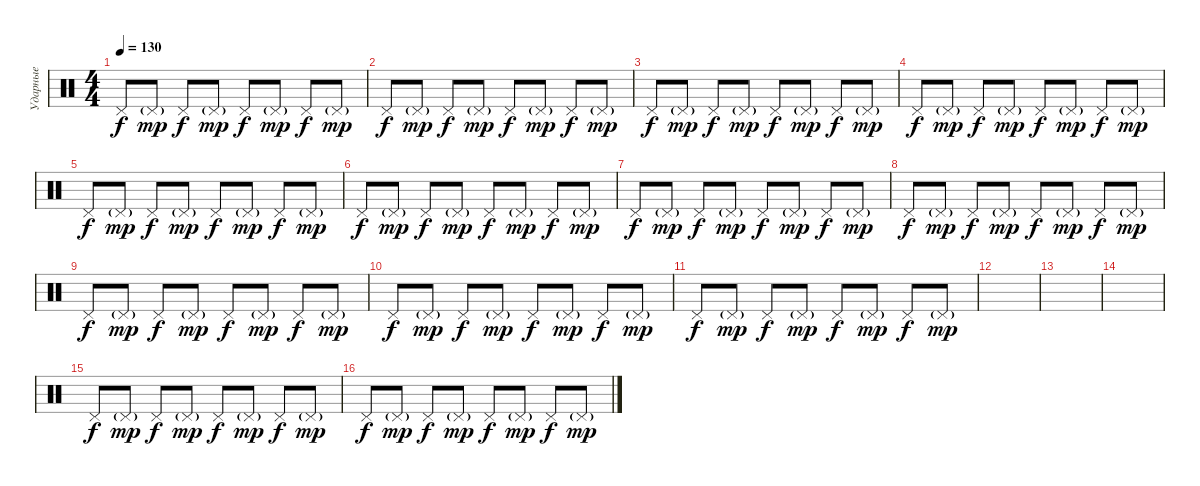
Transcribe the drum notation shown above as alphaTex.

\track ("Ударные" "Ударные") {instrument percussion}
\staff {score}
\articulation defaults
\ts (4 4)
\tempo 130
\clef neutral
\ks c "Pedal Hi-Hat (hit)".8{dy f} "Pedal Hi-Hat (hit)"{g}.8{dy mp} "Pedal Hi-Hat (hit)".8{dy f} "Pedal Hi-Hat (hit)"{g}.8{dy mp} "Pedal Hi-Hat (hit)".8{dy f} "Pedal Hi-Hat (hit)"{g}.8{dy mp} "Pedal Hi-Hat (hit)".8{dy f} "Pedal Hi-Hat (hit)"{g}.8{dy mp}
|
"Pedal Hi-Hat (hit)".8{dy f} "Pedal Hi-Hat (hit)"{g}.8{dy mp} "Pedal Hi-Hat (hit)".8{dy f} "Pedal Hi-Hat (hit)"{g}.8{dy mp} "Pedal Hi-Hat (hit)".8{dy f} "Pedal Hi-Hat (hit)"{g}.8{dy mp} "Pedal Hi-Hat (hit)".8{dy f} "Pedal Hi-Hat (hit)"{g}.8{dy mp} |
"Pedal Hi-Hat (hit)".8{dy f} "Pedal Hi-Hat (hit)"{g}.8{dy mp} "Pedal Hi-Hat (hit)".8{dy f} "Pedal Hi-Hat (hit)"{g}.8{dy mp} "Pedal Hi-Hat (hit)".8{dy f} "Pedal Hi-Hat (hit)"{g}.8{dy mp} "Pedal Hi-Hat (hit)".8{dy f} "Pedal Hi-Hat (hit)"{g}.8{dy mp} |
"Pedal Hi-Hat (hit)".8{dy f} "Pedal Hi-Hat (hit)"{g}.8{dy mp} "Pedal Hi-Hat (hit)".8{dy f} "Pedal Hi-Hat (hit)"{g}.8{dy mp} "Pedal Hi-Hat (hit)".8{dy f} "Pedal Hi-Hat (hit)"{g}.8{dy mp} "Pedal Hi-Hat (hit)".8{dy f} "Pedal Hi-Hat (hit)"{g}.8{dy mp} |
"Pedal Hi-Hat (hit)".8{dy f} "Pedal Hi-Hat (hit)"{g}.8{dy mp} "Pedal Hi-Hat (hit)".8{dy f} "Pedal Hi-Hat (hit)"{g}.8{dy mp} "Pedal Hi-Hat (hit)".8{dy f} "Pedal Hi-Hat (hit)"{g}.8{dy mp} "Pedal Hi-Hat (hit)".8{dy f} "Pedal Hi-Hat (hit)"{g}.8{dy mp} |
"Pedal Hi-Hat (hit)".8{dy f} "Pedal Hi-Hat (hit)"{g}.8{dy mp} "Pedal Hi-Hat (hit)".8{dy f} "Pedal Hi-Hat (hit)"{g}.8{dy mp} "Pedal Hi-Hat (hit)".8{dy f} "Pedal Hi-Hat (hit)"{g}.8{dy mp} "Pedal Hi-Hat (hit)".8{dy f} "Pedal Hi-Hat (hit)"{g}.8{dy mp} |
"Pedal Hi-Hat (hit)".8{dy f} "Pedal Hi-Hat (hit)"{g}.8{dy mp} "Pedal Hi-Hat (hit)".8{dy f} "Pedal Hi-Hat (hit)"{g}.8{dy mp} "Pedal Hi-Hat (hit)".8{dy f} "Pedal Hi-Hat (hit)"{g}.8{dy mp} "Pedal Hi-Hat (hit)".8{dy f} "Pedal Hi-Hat (hit)"{g}.8{dy mp} |
"Pedal Hi-Hat (hit)".8{dy f} "Pedal Hi-Hat (hit)"{g}.8{dy mp} "Pedal Hi-Hat (hit)".8{dy f} "Pedal Hi-Hat (hit)"{g}.8{dy mp} "Pedal Hi-Hat (hit)".8{dy f} "Pedal Hi-Hat (hit)"{g}.8{dy mp} "Pedal Hi-Hat (hit)".8{dy f} "Pedal Hi-Hat (hit)"{g}.8{dy mp} |
"Pedal Hi-Hat (hit)".8{dy f} "Pedal Hi-Hat (hit)"{g}.8{dy mp} "Pedal Hi-Hat (hit)".8{dy f} "Pedal Hi-Hat (hit)"{g}.8{dy mp} "Pedal Hi-Hat (hit)".8{dy f} "Pedal Hi-Hat (hit)"{g}.8{dy mp} "Pedal Hi-Hat (hit)".8{dy f} "Pedal Hi-Hat (hit)"{g}.8{dy mp} |
"Pedal Hi-Hat (hit)".8{dy f} "Pedal Hi-Hat (hit)"{g}.8{dy mp} "Pedal Hi-Hat (hit)".8{dy f} "Pedal Hi-Hat (hit)"{g}.8{dy mp} "Pedal Hi-Hat (hit)".8{dy f} "Pedal Hi-Hat (hit)"{g}.8{dy mp} "Pedal Hi-Hat (hit)".8{dy f} "Pedal Hi-Hat (hit)"{g}.8{dy mp} |
"Pedal Hi-Hat (hit)".8{dy f} "Pedal Hi-Hat (hit)"{g}.8{dy mp} "Pedal Hi-Hat (hit)".8{dy f} "Pedal Hi-Hat (hit)"{g}.8{dy mp} "Pedal Hi-Hat (hit)".8{dy f} "Pedal Hi-Hat (hit)"{g}.8{dy mp} "Pedal Hi-Hat (hit)".8{dy f} "Pedal Hi-Hat (hit)"{g}.8{dy mp} |
|
|
|
"Pedal Hi-Hat (hit)".8{dy f} "Pedal Hi-Hat (hit)"{g}.8{dy mp} "Pedal Hi-Hat (hit)".8{dy f} "Pedal Hi-Hat (hit)"{g}.8{dy mp} "Pedal Hi-Hat (hit)".8{dy f} "Pedal Hi-Hat (hit)"{g}.8{dy mp} "Pedal Hi-Hat (hit)".8{dy f} "Pedal Hi-Hat (hit)"{g}.8{dy mp} |
"Pedal Hi-Hat (hit)".8{dy f} "Pedal Hi-Hat (hit)"{g}.8{dy mp} "Pedal Hi-Hat (hit)".8{dy f} "Pedal Hi-Hat (hit)"{g}.8{dy mp} "Pedal Hi-Hat (hit)".8{dy f} "Pedal Hi-Hat (hit)"{g}.8{dy mp} "Pedal Hi-Hat (hit)".8{dy f} "Pedal Hi-Hat (hit)"{g}.8{dy mp}
